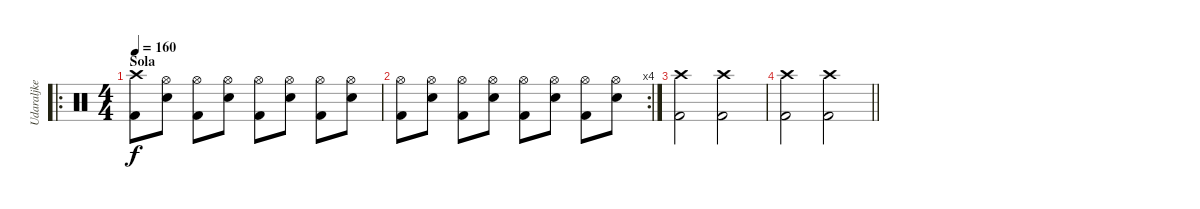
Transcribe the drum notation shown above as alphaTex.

\track ("Udaraljke" "Udaraljke") {instrument percussion}
\staff {score}
\articulation defaults
\ro
\ts (4 4)
\section ("" "Sola")
\tempo 160
\clef neutral
\ks c
("Crash high (hit)" "Kick (hit) 2").8{dy f} ("Hi-Hat (open)" "Electric Snare (hit)").8 ("Hi-Hat (open)" "Kick (hit) 2").8 ("Hi-Hat (open)" "Electric Snare (hit)").8 ("Hi-Hat (open)" "Kick (hit) 2").8 ("Hi-Hat (open)" "Electric Snare (hit)").8 ("Hi-Hat (open)" "Kick (hit) 2").8 ("Hi-Hat (open)" "Electric Snare (hit)").8 |
\rc 4
("Hi-Hat (open)" "Kick (hit) 2").8 ("Hi-Hat (open)" "Electric Snare (hit)").8 ("Hi-Hat (open)" "Kick (hit) 2").8 ("Hi-Hat (open)" "Electric Snare (hit)").8 ("Hi-Hat (open)" "Kick (hit) 2").8 ("Hi-Hat (open)" "Electric Snare (hit)").8 ("Hi-Hat (open)" "Kick (hit) 2").8 ("Hi-Hat (open)" "Electric Snare (hit)").8 |
("Crash high (hit)" "Kick (hit) 2").2 ("Crash high (hit)" "Kick (hit) 2").2 |
\barLineRight lightlight
("Crash high (hit)" "Kick (hit) 2").2 ("Crash high (hit)" "Kick (hit) 2").2
